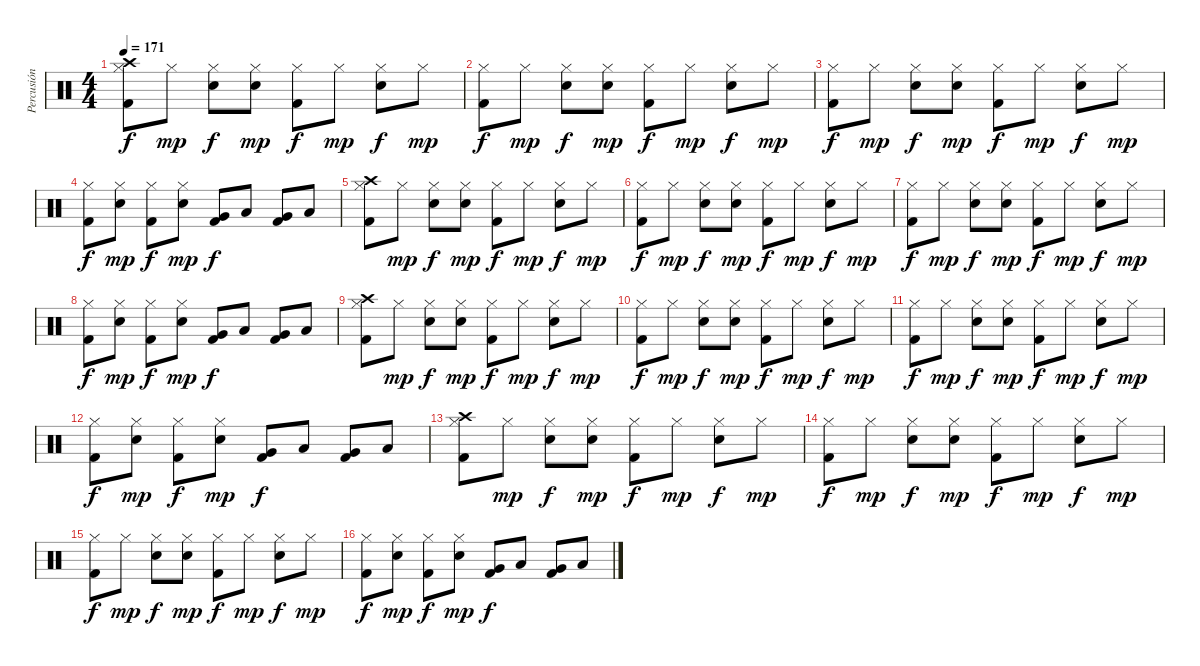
\track ("Percusión" "Percusión") {instrument percussion}
\staff {score}
\articulation defaults
\ts (4 4)
\tempo 171
\clef neutral
\ks c
("Crash high (hit)" "Hi-Hat (closed)" "Kick (hit) 2").8{dy f} "Hi-Hat (closed)".8{dy mp} ("Hi-Hat (closed)" "Electric Snare (hit)").8{dy f} ("Hi-Hat (closed)" "Electric Snare (hit)").8{dy mp} ("Hi-Hat (closed)" "Kick (hit) 2").8{dy f} "Hi-Hat (closed)".8{dy mp} ("Hi-Hat (closed)" "Electric Snare (hit)").8{dy f} "Hi-Hat (closed)".8{dy mp} |
("Hi-Hat (closed)" "Kick (hit) 2").8{dy f} "Hi-Hat (closed)".8{dy mp} ("Hi-Hat (closed)" "Electric Snare (hit)").8{dy f} ("Hi-Hat (closed)" "Electric Snare (hit)").8{dy mp} ("Hi-Hat (closed)" "Kick (hit) 2").8{dy f} "Hi-Hat (closed)".8{dy mp} ("Hi-Hat (closed)" "Electric Snare (hit)").8{dy f} "Hi-Hat (closed)".8{dy mp} |
("Hi-Hat (closed)" "Kick (hit) 2").8{dy f} "Hi-Hat (closed)".8{dy mp} ("Hi-Hat (closed)" "Electric Snare (hit)").8{dy f} ("Hi-Hat (closed)" "Electric Snare (hit)").8{dy mp} ("Hi-Hat (closed)" "Kick (hit) 2").8{dy f} "Hi-Hat (closed)".8{dy mp} ("Hi-Hat (closed)" "Electric Snare (hit)").8{dy f} "Hi-Hat (closed)".8{dy mp} |
("Hi-Hat (closed)" "Kick (hit) 2").8{dy f} ("Hi-Hat (closed)" "Electric Snare (hit)").8{dy mp} ("Hi-Hat (closed)" "Kick (hit) 2").8{dy f} ("Hi-Hat (closed)" "Electric Snare (hit)").8{dy mp} ("Very Low Tom (hit)" "Kick (hit) 2").8{dy f} "Low Tom (hit)".8 ("Very Low Tom (hit)" "Kick (hit) 2").8 "Low Floor Tom (hit)".8 |
("Crash high (hit)" "Hi-Hat (closed)" "Kick (hit) 2").8 "Hi-Hat (closed)".8{dy mp} ("Hi-Hat (closed)" "Electric Snare (hit)").8{dy f} ("Hi-Hat (closed)" "Electric Snare (hit)").8{dy mp} ("Hi-Hat (closed)" "Kick (hit) 2").8{dy f} "Hi-Hat (closed)".8{dy mp} ("Hi-Hat (closed)" "Electric Snare (hit)").8{dy f} "Hi-Hat (closed)".8{dy mp} |
("Hi-Hat (closed)" "Kick (hit) 2").8{dy f} "Hi-Hat (closed)".8{dy mp} ("Hi-Hat (closed)" "Electric Snare (hit)").8{dy f} ("Hi-Hat (closed)" "Electric Snare (hit)").8{dy mp} ("Hi-Hat (closed)" "Kick (hit) 2").8{dy f} "Hi-Hat (closed)".8{dy mp} ("Hi-Hat (closed)" "Electric Snare (hit)").8{dy f} "Hi-Hat (closed)".8{dy mp} |
("Hi-Hat (closed)" "Kick (hit) 2").8{dy f} "Hi-Hat (closed)".8{dy mp} ("Hi-Hat (closed)" "Electric Snare (hit)").8{dy f} ("Hi-Hat (closed)" "Electric Snare (hit)").8{dy mp} ("Hi-Hat (closed)" "Kick (hit) 2").8{dy f} "Hi-Hat (closed)".8{dy mp} ("Hi-Hat (closed)" "Electric Snare (hit)").8{dy f} "Hi-Hat (closed)".8{dy mp} |
("Hi-Hat (closed)" "Kick (hit) 2").8{dy f} ("Hi-Hat (closed)" "Electric Snare (hit)").8{dy mp} ("Hi-Hat (closed)" "Kick (hit) 2").8{dy f} ("Hi-Hat (closed)" "Electric Snare (hit)").8{dy mp} ("Very Low Tom (hit)" "Kick (hit) 2").8{dy f} "Low Tom (hit)".8 ("Very Low Tom (hit)" "Kick (hit) 2").8 "Low Floor Tom (hit)".8 |
("Crash high (hit)" "Hi-Hat (closed)" "Kick (hit) 2").8 "Hi-Hat (closed)".8{dy mp} ("Hi-Hat (closed)" "Electric Snare (hit)").8{dy f} ("Hi-Hat (closed)" "Electric Snare (hit)").8{dy mp} ("Hi-Hat (closed)" "Kick (hit) 2").8{dy f} "Hi-Hat (closed)".8{dy mp} ("Hi-Hat (closed)" "Electric Snare (hit)").8{dy f} "Hi-Hat (closed)".8{dy mp} |
("Hi-Hat (closed)" "Kick (hit) 2").8{dy f} "Hi-Hat (closed)".8{dy mp} ("Hi-Hat (closed)" "Electric Snare (hit)").8{dy f} ("Hi-Hat (closed)" "Electric Snare (hit)").8{dy mp} ("Hi-Hat (closed)" "Kick (hit) 2").8{dy f} "Hi-Hat (closed)".8{dy mp} ("Hi-Hat (closed)" "Electric Snare (hit)").8{dy f} "Hi-Hat (closed)".8{dy mp} |
("Hi-Hat (closed)" "Kick (hit) 2").8{dy f} "Hi-Hat (closed)".8{dy mp} ("Hi-Hat (closed)" "Electric Snare (hit)").8{dy f} ("Hi-Hat (closed)" "Electric Snare (hit)").8{dy mp} ("Hi-Hat (closed)" "Kick (hit) 2").8{dy f} "Hi-Hat (closed)".8{dy mp} ("Hi-Hat (closed)" "Electric Snare (hit)").8{dy f} "Hi-Hat (closed)".8{dy mp} |
("Hi-Hat (closed)" "Kick (hit) 2").8{dy f} ("Hi-Hat (closed)" "Electric Snare (hit)").8{dy mp} ("Hi-Hat (closed)" "Kick (hit) 2").8{dy f} ("Hi-Hat (closed)" "Electric Snare (hit)").8{dy mp} ("Very Low Tom (hit)" "Kick (hit) 2").8{dy f} "Low Tom (hit)".8 ("Very Low Tom (hit)" "Kick (hit) 2").8 "Low Floor Tom (hit)".8 |
("Crash high (hit)" "Hi-Hat (closed)" "Kick (hit) 2").8 "Hi-Hat (closed)".8{dy mp} ("Hi-Hat (closed)" "Electric Snare (hit)").8{dy f} ("Hi-Hat (closed)" "Electric Snare (hit)").8{dy mp} ("Hi-Hat (closed)" "Kick (hit) 2").8{dy f} "Hi-Hat (closed)".8{dy mp} ("Hi-Hat (closed)" "Electric Snare (hit)").8{dy f} "Hi-Hat (closed)".8{dy mp} |
("Hi-Hat (closed)" "Kick (hit) 2").8{dy f} "Hi-Hat (closed)".8{dy mp} ("Hi-Hat (closed)" "Electric Snare (hit)").8{dy f} ("Hi-Hat (closed)" "Electric Snare (hit)").8{dy mp} ("Hi-Hat (closed)" "Kick (hit) 2").8{dy f} "Hi-Hat (closed)".8{dy mp} ("Hi-Hat (closed)" "Electric Snare (hit)").8{dy f} "Hi-Hat (closed)".8{dy mp} |
("Hi-Hat (closed)" "Kick (hit) 2").8{dy f} "Hi-Hat (closed)".8{dy mp} ("Hi-Hat (closed)" "Electric Snare (hit)").8{dy f} ("Hi-Hat (closed)" "Electric Snare (hit)").8{dy mp} ("Hi-Hat (closed)" "Kick (hit) 2").8{dy f} "Hi-Hat (closed)".8{dy mp} ("Hi-Hat (closed)" "Electric Snare (hit)").8{dy f} "Hi-Hat (closed)".8{dy mp} |
("Hi-Hat (closed)" "Kick (hit) 2").8{dy f} ("Hi-Hat (closed)" "Electric Snare (hit)").8{dy mp} ("Hi-Hat (closed)" "Kick (hit) 2").8{dy f} ("Hi-Hat (closed)" "Electric Snare (hit)").8{dy mp} ("Very Low Tom (hit)" "Kick (hit) 2").8{dy f} "Low Tom (hit)".8 ("Very Low Tom (hit)" "Kick (hit) 2").8 "Low Floor Tom (hit)".8
